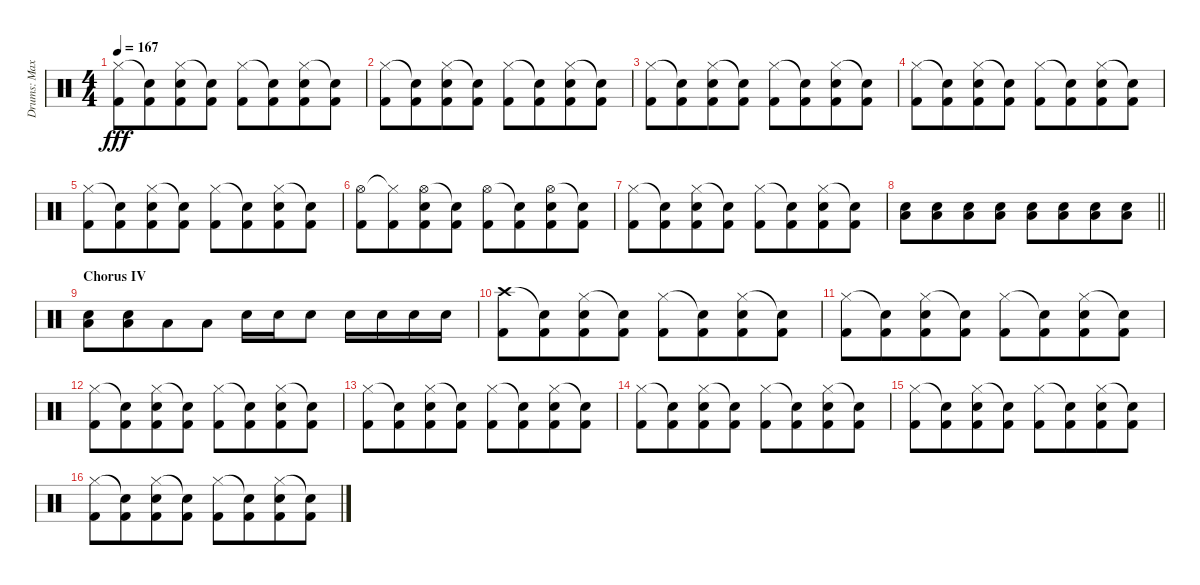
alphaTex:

\track ("Drums: Max" "Drums: Max") {instrument percussion}
\staff {score}
\articulation defaults
\ts (4 4)
\tempo 167
\clef neutral
\ks c
("Hi-Hat (closed)" "Kick (hit) 2").8{dy fff} ("Snare (hit)"{t} "Kick (hit) 2").8{beam merge} ("Hi-Hat (closed)" "Electric Snare (hit)" "Kick (hit) 2").8 ("Snare (hit)"{t} "Kick (hit) 2").8 ("Hi-Hat (closed)" "Kick (hit) 2").8 ("Snare (hit)"{t} "Kick (hit) 2").8{beam merge} ("Hi-Hat (closed)" "Electric Snare (hit)" "Kick (hit) 2").8 ("Snare (hit)"{t} "Kick (hit) 2").8 |
("Hi-Hat (closed)" "Kick (hit) 2").8 ("Snare (hit)"{t} "Kick (hit) 2").8{beam merge} ("Hi-Hat (closed)" "Electric Snare (hit)" "Kick (hit) 2").8 ("Snare (hit)"{t} "Kick (hit) 2").8 ("Hi-Hat (closed)" "Kick (hit) 2").8 ("Snare (hit)"{t} "Kick (hit) 2").8{beam merge} ("Hi-Hat (closed)" "Electric Snare (hit)" "Kick (hit) 2").8 ("Snare (hit)"{t} "Kick (hit) 2").8 |
("Hi-Hat (closed)" "Kick (hit) 2").8 ("Snare (hit)"{t} "Kick (hit) 2").8{beam merge} ("Hi-Hat (closed)" "Electric Snare (hit)" "Kick (hit) 2").8 ("Snare (hit)"{t} "Kick (hit) 2").8 ("Hi-Hat (closed)" "Kick (hit) 2").8 ("Snare (hit)"{t} "Kick (hit) 2").8{beam merge} ("Hi-Hat (closed)" "Electric Snare (hit)" "Kick (hit) 2").8 ("Snare (hit)"{t} "Kick (hit) 2").8 |
("Hi-Hat (closed)" "Kick (hit) 2").8 ("Snare (hit)"{t} "Kick (hit) 2").8{beam merge} ("Hi-Hat (closed)" "Electric Snare (hit)" "Kick (hit) 2").8 ("Snare (hit)"{t} "Kick (hit) 2").8 ("Hi-Hat (closed)" "Kick (hit) 2").8 ("Snare (hit)"{t} "Kick (hit) 2").8{beam merge} ("Hi-Hat (closed)" "Electric Snare (hit)" "Kick (hit) 2").8 ("Snare (hit)"{t} "Kick (hit) 2").8 |
("Hi-Hat (closed)" "Kick (hit) 2").8 ("Snare (hit)"{t} "Kick (hit) 2").8{beam merge} ("Hi-Hat (closed)" "Electric Snare (hit)" "Kick (hit) 2").8 ("Snare (hit)"{t} "Kick (hit) 2").8 ("Hi-Hat (closed)" "Kick (hit) 2").8 ("Snare (hit)"{t} "Kick (hit) 2").8{beam merge} ("Hi-Hat (closed)" "Electric Snare (hit)" "Kick (hit) 2").8 ("Snare (hit)"{t} "Kick (hit) 2").8 |
("Hi-Hat (open)" "Kick (hit) 2").8 ("Hi-Hat (closed)"{t} "Kick (hit) 2").8{beam merge} ("Hi-Hat (open)" "Electric Snare (hit)" "Kick (hit) 2").8 ("Snare (hit)"{t} "Kick (hit) 2").8 ("Hi-Hat (open)" "Kick (hit) 2").8 ("Snare (hit)"{t} "Kick (hit) 2").8{beam merge} ("Hi-Hat (open)" "Electric Snare (hit)" "Kick (hit) 2").8 ("Snare (hit)"{t} "Kick (hit) 2").8 |
("Hi-Hat (closed)" "Kick (hit) 2").8 ("Snare (hit)"{t} "Kick (hit) 2").8{beam merge} ("Hi-Hat (closed)" "Electric Snare (hit)" "Kick (hit) 2").8 ("Snare (hit)"{t} "Kick (hit) 2").8 ("Hi-Hat (closed)" "Kick (hit) 2").8 ("Snare (hit)"{t} "Kick (hit) 2").8{beam merge} ("Hi-Hat (closed)" "Electric Snare (hit)" "Kick (hit) 2").8 ("Snare (hit)"{t} "Kick (hit) 2").8 |
\barLineRight lightlight
("Electric Snare (hit)" "Low Floor Tom (hit)").8 ("Electric Snare (hit)" "Low Floor Tom (hit)").8{beam merge} ("Electric Snare (hit)" "Low Floor Tom (hit)").8 ("Electric Snare (hit)" "Low Floor Tom (hit)").8 ("Electric Snare (hit)" "Low Floor Tom (hit)").8 ("Electric Snare (hit)" "Low Floor Tom (hit)").8{beam merge} ("Electric Snare (hit)" "Low Floor Tom (hit)").8 ("Electric Snare (hit)" "Low Floor Tom (hit)").8 |
\section ("" "Chorus IV")
("Electric Snare (hit)" "Low Floor Tom (hit)").8 ("Electric Snare (hit)" "Low Floor Tom (hit)").8{beam merge} "Low Floor Tom (hit)".8 "Low Floor Tom (hit)".8 "Electric Snare (hit)".16 "Electric Snare (hit)".16{beam merge} "Electric Snare (hit)".8 "Electric Snare (hit)".16 "Electric Snare (hit)".16 "Electric Snare (hit)".16 "Electric Snare (hit)".16 |
("Crash high (hit)" "Kick (hit) 2").8 ("Snare (hit)"{t} "Kick (hit) 2").8{beam merge} ("Hi-Hat (closed)" "Electric Snare (hit)" "Kick (hit) 2").8 ("Snare (hit)"{t} "Kick (hit) 2").8 ("Hi-Hat (closed)" "Kick (hit) 2").8 ("Snare (hit)"{t} "Kick (hit) 2").8{beam merge} ("Hi-Hat (closed)" "Electric Snare (hit)" "Kick (hit) 2").8 ("Snare (hit)"{t} "Kick (hit) 2").8 |
("Hi-Hat (closed)" "Kick (hit) 2").8 ("Snare (hit)"{t} "Kick (hit) 2").8{beam merge} ("Hi-Hat (closed)" "Electric Snare (hit)" "Kick (hit) 2").8 ("Snare (hit)"{t} "Kick (hit) 2").8 ("Hi-Hat (closed)" "Kick (hit) 2").8 ("Snare (hit)"{t} "Kick (hit) 2").8{beam merge} ("Hi-Hat (closed)" "Electric Snare (hit)" "Kick (hit) 2").8 ("Snare (hit)"{t} "Kick (hit) 2").8 |
("Hi-Hat (closed)" "Kick (hit) 2").8 ("Snare (hit)"{t} "Kick (hit) 2").8{beam merge} ("Hi-Hat (closed)" "Electric Snare (hit)" "Kick (hit) 2").8 ("Snare (hit)"{t} "Kick (hit) 2").8 ("Hi-Hat (closed)" "Kick (hit) 2").8 ("Snare (hit)"{t} "Kick (hit) 2").8{beam merge} ("Hi-Hat (closed)" "Electric Snare (hit)" "Kick (hit) 2").8 ("Snare (hit)"{t} "Kick (hit) 2").8 |
("Hi-Hat (closed)" "Kick (hit) 2").8 ("Snare (hit)"{t} "Kick (hit) 2").8{beam merge} ("Hi-Hat (closed)" "Electric Snare (hit)" "Kick (hit) 2").8 ("Snare (hit)"{t} "Kick (hit) 2").8 ("Hi-Hat (closed)" "Kick (hit) 2").8 ("Snare (hit)"{t} "Kick (hit) 2").8{beam merge} ("Hi-Hat (closed)" "Electric Snare (hit)" "Kick (hit) 2").8 ("Snare (hit)"{t} "Kick (hit) 2").8 |
("Hi-Hat (closed)" "Kick (hit) 2").8 ("Snare (hit)"{t} "Kick (hit) 2").8{beam merge} ("Hi-Hat (closed)" "Electric Snare (hit)" "Kick (hit) 2").8 ("Snare (hit)"{t} "Kick (hit) 2").8 ("Hi-Hat (closed)" "Kick (hit) 2").8 ("Snare (hit)"{t} "Kick (hit) 2").8{beam merge} ("Hi-Hat (closed)" "Electric Snare (hit)" "Kick (hit) 2").8 ("Snare (hit)"{t} "Kick (hit) 2").8 |
("Hi-Hat (closed)" "Kick (hit) 2").8 ("Snare (hit)"{t} "Kick (hit) 2").8{beam merge} ("Hi-Hat (closed)" "Electric Snare (hit)" "Kick (hit) 2").8 ("Snare (hit)"{t} "Kick (hit) 2").8 ("Hi-Hat (closed)" "Kick (hit) 2").8 ("Snare (hit)"{t} "Kick (hit) 2").8{beam merge} ("Hi-Hat (closed)" "Electric Snare (hit)" "Kick (hit) 2").8 ("Snare (hit)"{t} "Kick (hit) 2").8 |
("Hi-Hat (closed)" "Kick (hit) 2").8 ("Snare (hit)"{t} "Kick (hit) 2").8{beam merge} ("Hi-Hat (closed)" "Electric Snare (hit)" "Kick (hit) 2").8 ("Snare (hit)"{t} "Kick (hit) 2").8 ("Hi-Hat (closed)" "Kick (hit) 2").8 ("Snare (hit)"{t} "Kick (hit) 2").8{beam merge} ("Hi-Hat (closed)" "Electric Snare (hit)" "Kick (hit) 2").8 ("Snare (hit)"{t} "Kick (hit) 2").8
